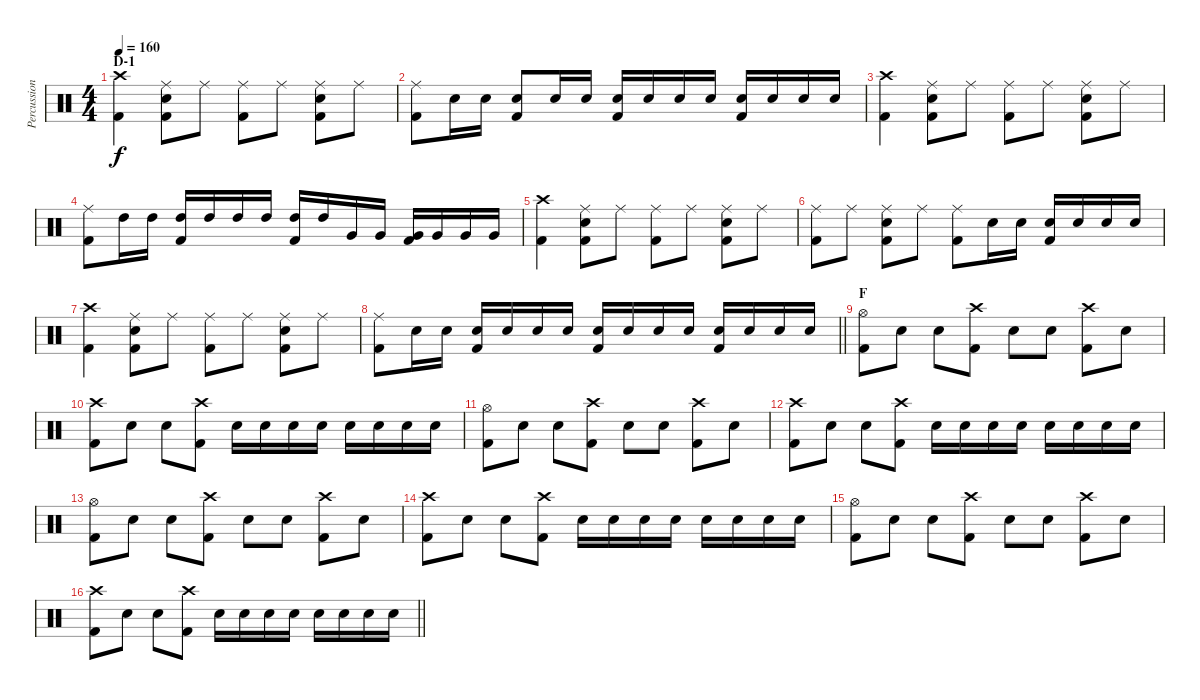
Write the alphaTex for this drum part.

\track ("Percussion" "Percussion") {instrument percussion}
\staff {score}
\articulation defaults
\ts (4 4)
\section ("" "D-1")
\tempo 160
\clef neutral
\ks c
("Crash high (hit)" "Kick (hit) 2").4{dy f} ("Ride (middle)" "Electric Snare (hit)" "Kick (hit) 2").8 "Ride (middle)".8 ("Ride (middle)" "Kick (hit) 2").8 "Ride (middle)".8 ("Ride (middle)" "Electric Snare (hit)" "Kick (hit) 2").8 "Ride (middle)".8 |
("Ride (middle)" "Kick (hit) 2").8 "Electric Snare (hit)".16 "Electric Snare (hit)".16 ("Electric Snare (hit)" "Kick (hit) 2").8 "Electric Snare (hit)".16 "Electric Snare (hit)".16 ("Electric Snare (hit)" "Kick (hit) 2").16 "Electric Snare (hit)".16 "Electric Snare (hit)".16 "Electric Snare (hit)".16 ("Electric Snare (hit)" "Kick (hit) 2").16 "Electric Snare (hit)".16 "Electric Snare (hit)".16 "Electric Snare (hit)".16 |
("Crash high (hit)" "Kick (hit) 2").4 ("Ride (middle)" "Electric Snare (hit)" "Kick (hit) 2").8 "Ride (middle)".8 ("Ride (middle)" "Kick (hit) 2").8 "Ride (middle)".8 ("Ride (middle)" "Electric Snare (hit)" "Kick (hit) 2").8 "Ride (middle)".8 |
("Ride (middle)" "Kick (hit) 2").8 "High Tom (hit)".16 "High Tom (hit)".16 ("High Tom (hit)" "Kick (hit) 2").16 "High Tom (hit)".16 "High Tom (hit)".16 "High Tom (hit)".16 ("High Tom (hit)" "Kick (hit) 2").16 "High Tom (hit)".16 "Very Low Tom (hit)".16 "Very Low Tom (hit)".16 ("Very Low Tom (hit)" "Kick (hit) 2").16 "Very Low Tom (hit)".16 "Very Low Tom (hit)".16 "Very Low Tom (hit)".16 |
("Crash high (hit)" "Kick (hit) 2").4 ("Ride (middle)" "Electric Snare (hit)" "Kick (hit) 2").8 "Ride (middle)".8 ("Ride (middle)" "Kick (hit) 2").8 "Ride (middle)".8 ("Ride (middle)" "Electric Snare (hit)" "Kick (hit) 2").8 "Ride (middle)".8 |
("Ride (middle)" "Kick (hit) 2").8 "Ride (middle)".8 ("Ride (middle)" "Electric Snare (hit)" "Kick (hit) 2").8 "Ride (middle)".8 ("Ride (middle)" "Kick (hit) 2").8 "Electric Snare (hit)".16 "Electric Snare (hit)".16 ("Electric Snare (hit)" "Kick (hit) 2").16 "Electric Snare (hit)".16 "Electric Snare (hit)".16 "Electric Snare (hit)".16 |
("Crash high (hit)" "Kick (hit) 2").4 ("Ride (middle)" "Electric Snare (hit)" "Kick (hit) 2").8 "Ride (middle)".8 ("Ride (middle)" "Kick (hit) 2").8 "Ride (middle)".8 ("Ride (middle)" "Electric Snare (hit)" "Kick (hit) 2").8 "Ride (middle)".8 |
\barLineRight lightlight
("Ride (middle)" "Kick (hit) 2").8 "Electric Snare (hit)".16 "Electric Snare (hit)".16 ("Electric Snare (hit)" "Kick (hit) 2").16 "Electric Snare (hit)".16 "Electric Snare (hit)".16 "Electric Snare (hit)".16 ("Electric Snare (hit)" "Kick (hit) 2").16 "Electric Snare (hit)".16 "Electric Snare (hit)".16 "Electric Snare (hit)".16 ("Electric Snare (hit)" "Kick (hit) 2").16 "Electric Snare (hit)".16 "Electric Snare (hit)".16 "Electric Snare (hit)".16 |
\section ("" "F")
("Hi-Hat (open)" "Kick (hit) 2").8 "Electric Snare (hit)".8 "Electric Snare (hit)".8 ("Crash high (hit)" "Kick (hit) 2").8 "Electric Snare (hit)".8 "Electric Snare (hit)".8 ("Crash high (hit)" "Kick (hit) 2").8 "Electric Snare (hit)".8 |
("Crash high (hit)" "Kick (hit) 2").8 "Electric Snare (hit)".8 "Electric Snare (hit)".8 ("Crash high (hit)" "Kick (hit) 2").8 "Electric Snare (hit)".16 "Electric Snare (hit)".16 "Electric Snare (hit)".16 "Electric Snare (hit)".16 "Electric Snare (hit)".16 "Electric Snare (hit)".16 "Electric Snare (hit)".16 "Electric Snare (hit)".16 |
("Hi-Hat (open)" "Kick (hit) 2").8 "Electric Snare (hit)".8 "Electric Snare (hit)".8 ("Crash high (hit)" "Kick (hit) 2").8 "Electric Snare (hit)".8 "Electric Snare (hit)".8 ("Crash high (hit)" "Kick (hit) 2").8 "Electric Snare (hit)".8 |
("Crash high (hit)" "Kick (hit) 2").8 "Electric Snare (hit)".8 "Electric Snare (hit)".8 ("Crash high (hit)" "Kick (hit) 2").8 "Electric Snare (hit)".16 "Electric Snare (hit)".16 "Electric Snare (hit)".16 "Electric Snare (hit)".16 "Electric Snare (hit)".16 "Electric Snare (hit)".16 "Electric Snare (hit)".16 "Electric Snare (hit)".16 |
("Hi-Hat (open)" "Kick (hit) 2").8 "Electric Snare (hit)".8 "Electric Snare (hit)".8 ("Crash high (hit)" "Kick (hit) 2").8 "Electric Snare (hit)".8 "Electric Snare (hit)".8 ("Crash high (hit)" "Kick (hit) 2").8 "Electric Snare (hit)".8 |
("Crash high (hit)" "Kick (hit) 2").8 "Electric Snare (hit)".8 "Electric Snare (hit)".8 ("Crash high (hit)" "Kick (hit) 2").8 "Electric Snare (hit)".16 "Electric Snare (hit)".16 "Electric Snare (hit)".16 "Electric Snare (hit)".16 "Electric Snare (hit)".16 "Electric Snare (hit)".16 "Electric Snare (hit)".16 "Electric Snare (hit)".16 |
("Hi-Hat (open)" "Kick (hit) 2").8 "Electric Snare (hit)".8 "Electric Snare (hit)".8 ("Crash high (hit)" "Kick (hit) 2").8 "Electric Snare (hit)".8 "Electric Snare (hit)".8 ("Crash high (hit)" "Kick (hit) 2").8 "Electric Snare (hit)".8 |
\barLineRight lightlight
("Crash high (hit)" "Kick (hit) 2").8 "Electric Snare (hit)".8 "Electric Snare (hit)".8 ("Crash high (hit)" "Kick (hit) 2").8 "Electric Snare (hit)".16 "Electric Snare (hit)".16 "Electric Snare (hit)".16 "Electric Snare (hit)".16 "Electric Snare (hit)".16 "Electric Snare (hit)".16 "Electric Snare (hit)".16 "Electric Snare (hit)".16
